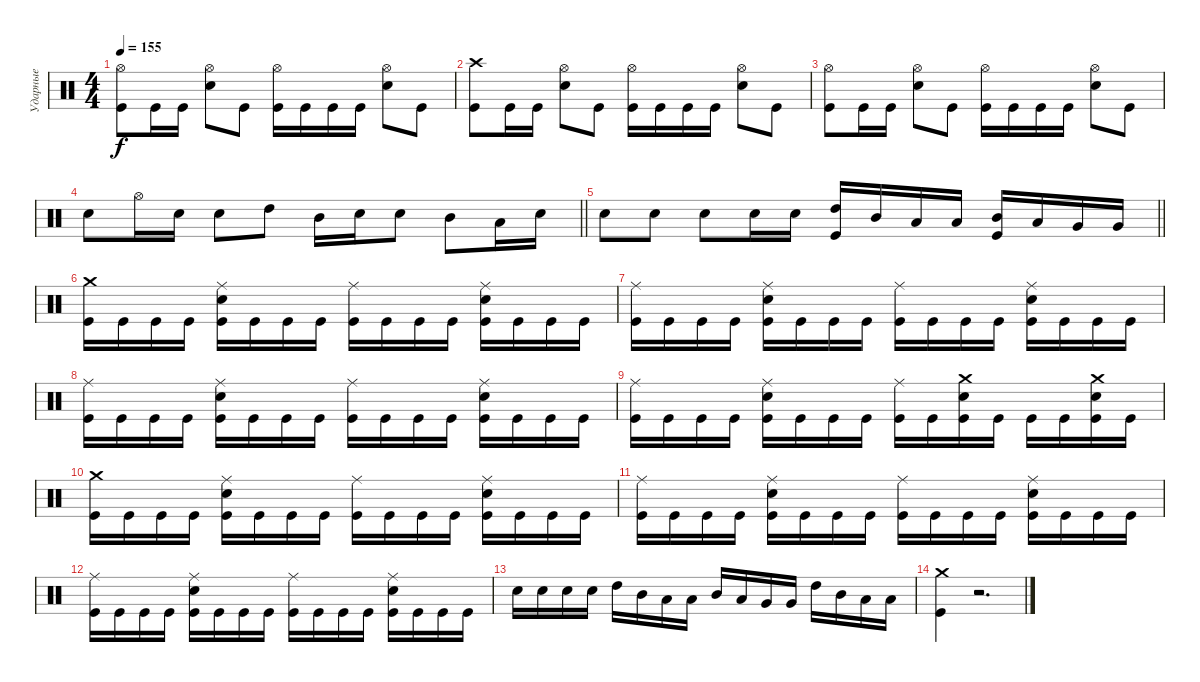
\track ("Ударные" "Ударные") {instrument percussion}
\staff {score}
\articulation defaults
\ts (4 4)
\tempo 155
\clef neutral
\ks c
("Kick (hit)" "Hi-Hat (open)").8{dy f} "Kick (hit)".16 "Kick (hit)".16 ("Snare (hit) 2" "Hi-Hat (open)").8 "Kick (hit)".8 ("Kick (hit)" "Hi-Hat (open)").16 "Kick (hit)".16 "Kick (hit)".16 "Kick (hit)".16 ("Snare (hit) 2" "Hi-Hat (open)").8 "Kick (hit)".8 |
("Kick (hit)" "Crash high (hit)").8 "Kick (hit)".16 "Kick (hit)".16 ("Snare (hit) 2" "Hi-Hat (open)").8 "Kick (hit)".8 ("Kick (hit)" "Hi-Hat (open)").16 "Kick (hit)".16 "Kick (hit)".16 "Kick (hit)".16 ("Snare (hit) 2" "Hi-Hat (open)").8 "Kick (hit)".8 |
("Kick (hit)" "Hi-Hat (open)").8 "Kick (hit)".16 "Kick (hit)".16 ("Snare (hit) 2" "Hi-Hat (open)").8 "Kick (hit)".8 ("Kick (hit)" "Hi-Hat (open)").16 "Kick (hit)".16 "Kick (hit)".16 "Kick (hit)".16 ("Snare (hit) 2" "Hi-Hat (open)").8 "Kick (hit)".8 |
\barLineRight lightlight "Snare (hit) 2".8 "Hi-Hat (open)".16 "Snare (hit) 2".16 "Snare (hit) 2".8 "High Tom (hit)".8 "Mid Tom (hit)".16 "Snare (hit) 2".16 "Snare (hit) 2".8 "Mid Tom (hit)".8 "Low Tom (hit)".16 "Snare (hit) 2".16
|
\barLineRight lightlight "Snare (hit) 2".8 "Snare (hit) 2".8 "Snare (hit) 2".8 "Snare (hit) 2".16 "Snare (hit) 2".16
("Kick (hit)" "High Tom (hit)").16 "Mid Tom (hit)".16 "Low Tom (hit)".16 "Low Tom (hit)".16 ("Kick (hit)" "Mid Tom (hit)").16 "Low Tom (hit)".16 "Very Low Tom (hit)".16 "Very Low Tom (hit)".16 |
("Kick (hit)" "Crash medium (hit)").16 "Kick (hit)".16 "Kick (hit)".16 "Kick (hit)".16 ("Kick (hit)" "Snare (hit) 2" "Ride (middle)").16 "Kick (hit)".16 "Kick (hit)".16 "Kick (hit)".16 ("Kick (hit)" "Ride (middle)").16 "Kick (hit)".16 "Kick (hit)".16 "Kick (hit)".16 ("Kick (hit)" "Snare (hit) 2" "Ride (middle)").16 "Kick (hit)".16 "Kick (hit)".16 "Kick (hit)".16 |
("Kick (hit)" "Ride (middle)").16 "Kick (hit)".16 "Kick (hit)".16 "Kick (hit)".16 ("Kick (hit)" "Snare (hit) 2" "Ride (middle)").16 "Kick (hit)".16 "Kick (hit)".16 "Kick (hit)".16 ("Kick (hit)" "Ride (middle)").16 "Kick (hit)".16 "Kick (hit)".16 "Kick (hit)".16 ("Kick (hit)" "Snare (hit) 2" "Ride (middle)").16 "Kick (hit)".16 "Kick (hit)".16 "Kick (hit)".16 |
("Kick (hit)" "Ride (middle)").16 "Kick (hit)".16 "Kick (hit)".16 "Kick (hit)".16 ("Kick (hit)" "Snare (hit) 2" "Ride (middle)").16 "Kick (hit)".16 "Kick (hit)".16 "Kick (hit)".16 ("Kick (hit)" "Ride (middle)").16 "Kick (hit)".16 "Kick (hit)".16 "Kick (hit)".16 ("Kick (hit)" "Snare (hit) 2" "Ride (middle)").16 "Kick (hit)".16 "Kick (hit)".16 "Kick (hit)".16 |
("Kick (hit)" "Ride (middle)").16 "Kick (hit)".16 "Kick (hit)".16 "Kick (hit)".16 ("Kick (hit)" "Snare (hit) 2" "Ride (middle)").16 "Kick (hit)".16 "Kick (hit)".16 "Kick (hit)".16 ("Kick (hit)" "Ride (middle)").16 "Kick (hit)".16 ("Kick (hit)" "Snare (hit) 2" "Crash medium (hit)").16 "Kick (hit)".16 "Kick (hit)".16 "Kick (hit)".16 ("Kick (hit)" "Snare (hit) 2" "Crash medium (hit)").16 "Kick (hit)".16 |
("Kick (hit)" "Crash medium (hit)").16 "Kick (hit)".16 "Kick (hit)".16 "Kick (hit)".16 ("Kick (hit)" "Snare (hit) 2" "Ride (middle)").16 "Kick (hit)".16 "Kick (hit)".16 "Kick (hit)".16 ("Kick (hit)" "Ride (middle)").16 "Kick (hit)".16 "Kick (hit)".16 "Kick (hit)".16 ("Kick (hit)" "Snare (hit) 2" "Ride (middle)").16 "Kick (hit)".16 "Kick (hit)".16 "Kick (hit)".16 |
("Kick (hit)" "Ride (middle)").16 "Kick (hit)".16 "Kick (hit)".16 "Kick (hit)".16 ("Kick (hit)" "Snare (hit) 2" "Ride (middle)").16 "Kick (hit)".16 "Kick (hit)".16 "Kick (hit)".16 ("Kick (hit)" "Ride (middle)").16 "Kick (hit)".16 "Kick (hit)".16 "Kick (hit)".16 ("Kick (hit)" "Snare (hit) 2" "Ride (middle)").16 "Kick (hit)".16 "Kick (hit)".16 "Kick (hit)".16 |
("Kick (hit)" "Ride (middle)").16 "Kick (hit)".16 "Kick (hit)".16 "Kick (hit)".16 ("Kick (hit)" "Snare (hit) 2" "Ride (middle)").16 "Kick (hit)".16 "Kick (hit)".16 "Kick (hit)".16 ("Kick (hit)" "Ride (middle)").16 "Kick (hit)".16 "Kick (hit)".16 "Kick (hit)".16 ("Kick (hit)" "Snare (hit) 2" "Ride (middle)").16 "Kick (hit)".16 "Kick (hit)".16 "Kick (hit)".16 |
"Snare (hit) 2".16 "Snare (hit) 2".16 "Snare (hit) 2".16 "Snare (hit) 2".16 "High Tom (hit)".16 "Mid Tom (hit)".16 "Low Tom (hit)".16 "Low Tom (hit)".16 "Mid Tom (hit)".16 "Low Tom (hit)".16 "Very Low Tom (hit)".16 "Very Low Tom (hit)".16 "High Tom (hit)".16 "Mid Tom (hit)".16 "Low Tom (hit)".16 "Low Tom (hit)".16 |
("Kick (hit)" "Crash medium (hit)").4 r.2{d}
